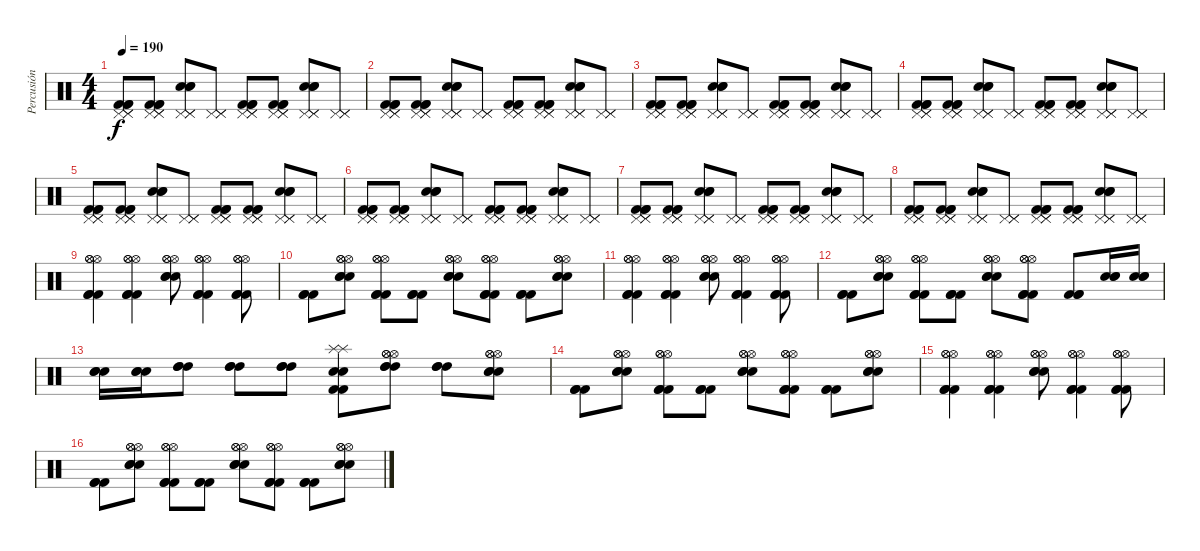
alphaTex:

\track ("Percusión" "Percusión") {instrument percussion}
\staff {score}
\articulation defaults
\ts (4 4)
\tempo 190
\clef neutral
\ks c
("Kick (hit) 2" "Kick (hit) 2" "Kick (hit) 2" "Pedal Hi-Hat (hit)" "Pedal Hi-Hat (hit)" "Pedal Hi-Hat (hit)").8{dy f} ("Kick (hit) 2" "Kick (hit) 2" "Kick (hit) 2" "Pedal Hi-Hat (hit)" "Pedal Hi-Hat (hit)" "Pedal Hi-Hat (hit)").8 ("Snare (hit) 2" "Snare (hit) 2" "Snare (hit) 2" "Pedal Hi-Hat (hit)" "Pedal Hi-Hat (hit)" "Pedal Hi-Hat (hit)").8 ("Pedal Hi-Hat (hit)" "Pedal Hi-Hat (hit)" "Pedal Hi-Hat (hit)").8 ("Kick (hit) 2" "Kick (hit) 2" "Kick (hit) 2" "Pedal Hi-Hat (hit)" "Pedal Hi-Hat (hit)" "Pedal Hi-Hat (hit)").8 ("Kick (hit) 2" "Kick (hit) 2" "Kick (hit) 2" "Pedal Hi-Hat (hit)" "Pedal Hi-Hat (hit)" "Pedal Hi-Hat (hit)").8 ("Snare (hit) 2" "Snare (hit) 2" "Snare (hit) 2" "Pedal Hi-Hat (hit)" "Pedal Hi-Hat (hit)" "Pedal Hi-Hat (hit)").8 ("Pedal Hi-Hat (hit)" "Pedal Hi-Hat (hit)" "Pedal Hi-Hat (hit)").8 |
("Kick (hit) 2" "Kick (hit) 2" "Kick (hit) 2" "Pedal Hi-Hat (hit)" "Pedal Hi-Hat (hit)" "Pedal Hi-Hat (hit)").8 ("Kick (hit) 2" "Kick (hit) 2" "Kick (hit) 2" "Pedal Hi-Hat (hit)" "Pedal Hi-Hat (hit)" "Pedal Hi-Hat (hit)").8 ("Snare (hit) 2" "Snare (hit) 2" "Snare (hit) 2" "Pedal Hi-Hat (hit)" "Pedal Hi-Hat (hit)" "Pedal Hi-Hat (hit)").8 ("Pedal Hi-Hat (hit)" "Pedal Hi-Hat (hit)" "Pedal Hi-Hat (hit)").8 ("Kick (hit) 2" "Kick (hit) 2" "Kick (hit) 2" "Pedal Hi-Hat (hit)" "Pedal Hi-Hat (hit)" "Pedal Hi-Hat (hit)").8 ("Kick (hit) 2" "Kick (hit) 2" "Kick (hit) 2" "Pedal Hi-Hat (hit)" "Pedal Hi-Hat (hit)" "Pedal Hi-Hat (hit)").8 ("Snare (hit) 2" "Snare (hit) 2" "Snare (hit) 2" "Pedal Hi-Hat (hit)" "Pedal Hi-Hat (hit)" "Pedal Hi-Hat (hit)").8 ("Pedal Hi-Hat (hit)" "Pedal Hi-Hat (hit)" "Pedal Hi-Hat (hit)").8 |
("Kick (hit) 2" "Kick (hit) 2" "Kick (hit) 2" "Pedal Hi-Hat (hit)" "Pedal Hi-Hat (hit)" "Pedal Hi-Hat (hit)").8 ("Kick (hit) 2" "Kick (hit) 2" "Kick (hit) 2" "Pedal Hi-Hat (hit)" "Pedal Hi-Hat (hit)" "Pedal Hi-Hat (hit)").8 ("Snare (hit) 2" "Snare (hit) 2" "Snare (hit) 2" "Pedal Hi-Hat (hit)" "Pedal Hi-Hat (hit)" "Pedal Hi-Hat (hit)").8 ("Pedal Hi-Hat (hit)" "Pedal Hi-Hat (hit)" "Pedal Hi-Hat (hit)").8 ("Kick (hit) 2" "Kick (hit) 2" "Kick (hit) 2" "Pedal Hi-Hat (hit)" "Pedal Hi-Hat (hit)" "Pedal Hi-Hat (hit)").8 ("Kick (hit) 2" "Kick (hit) 2" "Kick (hit) 2" "Pedal Hi-Hat (hit)" "Pedal Hi-Hat (hit)" "Pedal Hi-Hat (hit)").8 ("Snare (hit) 2" "Snare (hit) 2" "Snare (hit) 2" "Pedal Hi-Hat (hit)" "Pedal Hi-Hat (hit)" "Pedal Hi-Hat (hit)").8 ("Pedal Hi-Hat (hit)" "Pedal Hi-Hat (hit)" "Pedal Hi-Hat (hit)").8 |
("Kick (hit) 2" "Kick (hit) 2" "Kick (hit) 2" "Pedal Hi-Hat (hit)" "Pedal Hi-Hat (hit)" "Pedal Hi-Hat (hit)").8 ("Kick (hit) 2" "Kick (hit) 2" "Kick (hit) 2" "Pedal Hi-Hat (hit)" "Pedal Hi-Hat (hit)" "Pedal Hi-Hat (hit)").8 ("Snare (hit) 2" "Snare (hit) 2" "Snare (hit) 2" "Pedal Hi-Hat (hit)" "Pedal Hi-Hat (hit)" "Pedal Hi-Hat (hit)").8 ("Pedal Hi-Hat (hit)" "Pedal Hi-Hat (hit)" "Pedal Hi-Hat (hit)").8 ("Kick (hit) 2" "Kick (hit) 2" "Kick (hit) 2" "Pedal Hi-Hat (hit)" "Pedal Hi-Hat (hit)" "Pedal Hi-Hat (hit)").8 ("Kick (hit) 2" "Kick (hit) 2" "Kick (hit) 2" "Pedal Hi-Hat (hit)" "Pedal Hi-Hat (hit)" "Pedal Hi-Hat (hit)").8 ("Snare (hit) 2" "Snare (hit) 2" "Snare (hit) 2" "Pedal Hi-Hat (hit)" "Pedal Hi-Hat (hit)" "Pedal Hi-Hat (hit)").8 ("Pedal Hi-Hat (hit)" "Pedal Hi-Hat (hit)" "Pedal Hi-Hat (hit)").8 |
("Kick (hit) 2" "Kick (hit) 2" "Kick (hit) 2" "Pedal Hi-Hat (hit)" "Pedal Hi-Hat (hit)" "Pedal Hi-Hat (hit)").8 ("Kick (hit) 2" "Kick (hit) 2" "Kick (hit) 2" "Pedal Hi-Hat (hit)" "Pedal Hi-Hat (hit)" "Pedal Hi-Hat (hit)").8 ("Snare (hit) 2" "Snare (hit) 2" "Snare (hit) 2" "Pedal Hi-Hat (hit)" "Pedal Hi-Hat (hit)" "Pedal Hi-Hat (hit)").8 ("Pedal Hi-Hat (hit)" "Pedal Hi-Hat (hit)" "Pedal Hi-Hat (hit)").8 ("Kick (hit) 2" "Kick (hit) 2" "Kick (hit) 2" "Pedal Hi-Hat (hit)" "Pedal Hi-Hat (hit)" "Pedal Hi-Hat (hit)").8 ("Kick (hit) 2" "Kick (hit) 2" "Kick (hit) 2" "Pedal Hi-Hat (hit)" "Pedal Hi-Hat (hit)" "Pedal Hi-Hat (hit)").8 ("Snare (hit) 2" "Snare (hit) 2" "Snare (hit) 2" "Pedal Hi-Hat (hit)" "Pedal Hi-Hat (hit)" "Pedal Hi-Hat (hit)").8 ("Pedal Hi-Hat (hit)" "Pedal Hi-Hat (hit)" "Pedal Hi-Hat (hit)").8 |
("Kick (hit) 2" "Kick (hit) 2" "Kick (hit) 2" "Pedal Hi-Hat (hit)" "Pedal Hi-Hat (hit)" "Pedal Hi-Hat (hit)").8 ("Kick (hit) 2" "Kick (hit) 2" "Kick (hit) 2" "Pedal Hi-Hat (hit)" "Pedal Hi-Hat (hit)" "Pedal Hi-Hat (hit)").8 ("Snare (hit) 2" "Snare (hit) 2" "Snare (hit) 2" "Pedal Hi-Hat (hit)" "Pedal Hi-Hat (hit)" "Pedal Hi-Hat (hit)").8 ("Pedal Hi-Hat (hit)" "Pedal Hi-Hat (hit)" "Pedal Hi-Hat (hit)").8 ("Kick (hit) 2" "Kick (hit) 2" "Kick (hit) 2" "Pedal Hi-Hat (hit)" "Pedal Hi-Hat (hit)" "Pedal Hi-Hat (hit)").8 ("Kick (hit) 2" "Kick (hit) 2" "Kick (hit) 2" "Pedal Hi-Hat (hit)" "Pedal Hi-Hat (hit)" "Pedal Hi-Hat (hit)").8 ("Snare (hit) 2" "Snare (hit) 2" "Snare (hit) 2" "Pedal Hi-Hat (hit)" "Pedal Hi-Hat (hit)" "Pedal Hi-Hat (hit)").8 ("Pedal Hi-Hat (hit)" "Pedal Hi-Hat (hit)" "Pedal Hi-Hat (hit)").8 |
("Kick (hit) 2" "Kick (hit) 2" "Kick (hit) 2" "Pedal Hi-Hat (hit)" "Pedal Hi-Hat (hit)" "Pedal Hi-Hat (hit)").8 ("Kick (hit) 2" "Kick (hit) 2" "Kick (hit) 2" "Pedal Hi-Hat (hit)" "Pedal Hi-Hat (hit)" "Pedal Hi-Hat (hit)").8 ("Snare (hit) 2" "Snare (hit) 2" "Snare (hit) 2" "Pedal Hi-Hat (hit)" "Pedal Hi-Hat (hit)" "Pedal Hi-Hat (hit)").8 ("Pedal Hi-Hat (hit)" "Pedal Hi-Hat (hit)" "Pedal Hi-Hat (hit)").8 ("Kick (hit) 2" "Kick (hit) 2" "Kick (hit) 2" "Pedal Hi-Hat (hit)" "Pedal Hi-Hat (hit)" "Pedal Hi-Hat (hit)").8 ("Kick (hit) 2" "Kick (hit) 2" "Kick (hit) 2" "Pedal Hi-Hat (hit)" "Pedal Hi-Hat (hit)" "Pedal Hi-Hat (hit)").8 ("Snare (hit) 2" "Snare (hit) 2" "Snare (hit) 2" "Pedal Hi-Hat (hit)" "Pedal Hi-Hat (hit)" "Pedal Hi-Hat (hit)").8 ("Pedal Hi-Hat (hit)" "Pedal Hi-Hat (hit)" "Pedal Hi-Hat (hit)").8 |
("Kick (hit) 2" "Kick (hit) 2" "Kick (hit) 2" "Pedal Hi-Hat (hit)" "Pedal Hi-Hat (hit)" "Pedal Hi-Hat (hit)").8 ("Kick (hit) 2" "Kick (hit) 2" "Kick (hit) 2" "Pedal Hi-Hat (hit)" "Pedal Hi-Hat (hit)" "Pedal Hi-Hat (hit)").8 ("Snare (hit) 2" "Snare (hit) 2" "Snare (hit) 2" "Pedal Hi-Hat (hit)" "Pedal Hi-Hat (hit)" "Pedal Hi-Hat (hit)").8 ("Pedal Hi-Hat (hit)" "Pedal Hi-Hat (hit)" "Pedal Hi-Hat (hit)").8 ("Kick (hit) 2" "Kick (hit) 2" "Kick (hit) 2" "Pedal Hi-Hat (hit)" "Pedal Hi-Hat (hit)" "Pedal Hi-Hat (hit)").8 ("Kick (hit) 2" "Kick (hit) 2" "Kick (hit) 2" "Pedal Hi-Hat (hit)" "Pedal Hi-Hat (hit)" "Pedal Hi-Hat (hit)").8 ("Snare (hit) 2" "Snare (hit) 2" "Snare (hit) 2" "Pedal Hi-Hat (hit)" "Pedal Hi-Hat (hit)" "Pedal Hi-Hat (hit)").8 ("Pedal Hi-Hat (hit)" "Pedal Hi-Hat (hit)" "Pedal Hi-Hat (hit)").8 |
("Kick (hit) 2" "Kick (hit) 2" "Kick (hit) 2" "Hi-Hat (open)" "Hi-Hat (open)" "Hi-Hat (open)").4 ("Kick (hit) 2" "Kick (hit) 2" "Kick (hit) 2" "Hi-Hat (open)" "Hi-Hat (open)" "Hi-Hat (open)").4 ("Snare (hit) 2" "Snare (hit) 2" "Snare (hit) 2" "Hi-Hat (open)" "Hi-Hat (open)" "Hi-Hat (open)").8 ("Kick (hit) 2" "Kick (hit) 2" "Kick (hit) 2" "Hi-Hat (open)" "Hi-Hat (open)" "Hi-Hat (open)").4 ("Kick (hit) 2" "Kick (hit) 2" "Kick (hit) 2" "Hi-Hat (open)" "Hi-Hat (open)" "Hi-Hat (open)").8 |
("Kick (hit) 2" "Kick (hit) 2" "Kick (hit) 2").8 ("Snare (hit) 2" "Snare (hit) 2" "Snare (hit) 2" "Hi-Hat (open)" "Hi-Hat (open)" "Hi-Hat (open)").8 ("Kick (hit) 2" "Kick (hit) 2" "Kick (hit) 2" "Hi-Hat (open)" "Hi-Hat (open)" "Hi-Hat (open)").8 ("Kick (hit) 2" "Kick (hit) 2" "Kick (hit) 2").8 ("Snare (hit) 2" "Snare (hit) 2" "Snare (hit) 2" "Hi-Hat (open)" "Hi-Hat (open)" "Hi-Hat (open)").8 ("Kick (hit) 2" "Kick (hit) 2" "Kick (hit) 2" "Hi-Hat (open)" "Hi-Hat (open)" "Hi-Hat (open)").8 ("Kick (hit) 2" "Kick (hit) 2" "Kick (hit) 2").8 ("Snare (hit) 2" "Snare (hit) 2" "Snare (hit) 2" "Hi-Hat (open)" "Hi-Hat (open)" "Hi-Hat (open)").8 |
("Kick (hit) 2" "Kick (hit) 2" "Kick (hit) 2" "Hi-Hat (open)" "Hi-Hat (open)" "Hi-Hat (open)").4 ("Kick (hit) 2" "Kick (hit) 2" "Kick (hit) 2" "Hi-Hat (open)" "Hi-Hat (open)" "Hi-Hat (open)").4 ("Snare (hit) 2" "Snare (hit) 2" "Snare (hit) 2" "Hi-Hat (open)" "Hi-Hat (open)" "Hi-Hat (open)").8 ("Kick (hit) 2" "Kick (hit) 2" "Kick (hit) 2" "Hi-Hat (open)" "Hi-Hat (open)" "Hi-Hat (open)").4 ("Kick (hit) 2" "Kick (hit) 2" "Kick (hit) 2" "Hi-Hat (open)" "Hi-Hat (open)" "Hi-Hat (open)").8 |
("Kick (hit) 2" "Kick (hit) 2" "Kick (hit) 2").8 ("Snare (hit) 2" "Snare (hit) 2" "Snare (hit) 2" "Hi-Hat (open)" "Hi-Hat (open)" "Hi-Hat (open)").8 ("Kick (hit) 2" "Kick (hit) 2" "Kick (hit) 2" "Hi-Hat (open)" "Hi-Hat (open)" "Hi-Hat (open)").8 ("Kick (hit) 2" "Kick (hit) 2" "Kick (hit) 2").8 ("Snare (hit) 2" "Snare (hit) 2" "Snare (hit) 2" "Hi-Hat (open)" "Hi-Hat (open)" "Hi-Hat (open)").8 ("Kick (hit) 2" "Kick (hit) 2" "Kick (hit) 2" "Hi-Hat (open)" "Hi-Hat (open)" "Hi-Hat (open)").8 ("Kick (hit) 2" "Kick (hit) 2" "Kick (hit) 2").8 ("Snare (hit) 2" "Snare (hit) 2" "Snare (hit) 2").16 ("Snare (hit) 2" "Snare (hit) 2" "Snare (hit) 2").16 |
("Snare (hit) 2" "Snare (hit) 2" "Snare (hit) 2").16 ("Snare (hit) 2" "Snare (hit) 2" "Snare (hit) 2").16 ("High Tom (hit)" "High Tom (hit)" "High Tom (hit)").8 ("High Tom (hit)" "High Tom (hit)" "High Tom (hit)").8 ("High Tom (hit)" "High Tom (hit)" "High Tom (hit)").8 ("Snare (hit) 2" "Snare (hit) 2" "Kick (hit) 2" "Kick (hit) 2" "Splash (hit)" "Splash (hit)").8 ("High Tom (hit)" "High Tom (hit)" "High Tom (hit)" "Hi-Hat (open)" "Hi-Hat (open)" "Hi-Hat (open)").8 ("High Tom (hit)" "High Tom (hit)" "High Tom (hit)").8 ("Snare (hit) 2" "Snare (hit) 2" "Snare (hit) 2" "Hi-Hat (open)" "Hi-Hat (open)" "Hi-Hat (open)").8 |
("Kick (hit) 2" "Kick (hit) 2" "Kick (hit) 2").8 ("Snare (hit) 2" "Snare (hit) 2" "Snare (hit) 2" "Hi-Hat (open)" "Hi-Hat (open)" "Hi-Hat (open)").8 ("Kick (hit) 2" "Kick (hit) 2" "Kick (hit) 2" "Hi-Hat (open)" "Hi-Hat (open)" "Hi-Hat (open)").8 ("Kick (hit) 2" "Kick (hit) 2" "Kick (hit) 2").8 ("Snare (hit) 2" "Snare (hit) 2" "Snare (hit) 2" "Hi-Hat (open)" "Hi-Hat (open)" "Hi-Hat (open)").8 ("Kick (hit) 2" "Kick (hit) 2" "Kick (hit) 2" "Hi-Hat (open)" "Hi-Hat (open)" "Hi-Hat (open)").8 ("Kick (hit) 2" "Kick (hit) 2" "Kick (hit) 2").8 ("Snare (hit) 2" "Snare (hit) 2" "Snare (hit) 2" "Hi-Hat (open)" "Hi-Hat (open)" "Hi-Hat (open)").8 |
("Kick (hit) 2" "Kick (hit) 2" "Kick (hit) 2" "Hi-Hat (open)" "Hi-Hat (open)" "Hi-Hat (open)").4 ("Kick (hit) 2" "Kick (hit) 2" "Kick (hit) 2" "Hi-Hat (open)" "Hi-Hat (open)" "Hi-Hat (open)").4 ("Snare (hit) 2" "Snare (hit) 2" "Snare (hit) 2" "Hi-Hat (open)" "Hi-Hat (open)" "Hi-Hat (open)").8 ("Kick (hit) 2" "Kick (hit) 2" "Kick (hit) 2" "Hi-Hat (open)" "Hi-Hat (open)" "Hi-Hat (open)").4 ("Kick (hit) 2" "Kick (hit) 2" "Kick (hit) 2" "Hi-Hat (open)" "Hi-Hat (open)" "Hi-Hat (open)").8 |
("Kick (hit) 2" "Kick (hit) 2" "Kick (hit) 2").8 ("Snare (hit) 2" "Snare (hit) 2" "Snare (hit) 2" "Hi-Hat (open)" "Hi-Hat (open)" "Hi-Hat (open)").8 ("Kick (hit) 2" "Kick (hit) 2" "Kick (hit) 2" "Hi-Hat (open)" "Hi-Hat (open)" "Hi-Hat (open)").8 ("Kick (hit) 2" "Kick (hit) 2" "Kick (hit) 2").8 ("Snare (hit) 2" "Snare (hit) 2" "Snare (hit) 2" "Hi-Hat (open)" "Hi-Hat (open)" "Hi-Hat (open)").8 ("Kick (hit) 2" "Kick (hit) 2" "Kick (hit) 2" "Hi-Hat (open)" "Hi-Hat (open)" "Hi-Hat (open)").8 ("Kick (hit) 2" "Kick (hit) 2" "Kick (hit) 2").8 ("Snare (hit) 2" "Snare (hit) 2" "Snare (hit) 2" "Hi-Hat (open)" "Hi-Hat (open)" "Hi-Hat (open)").8
